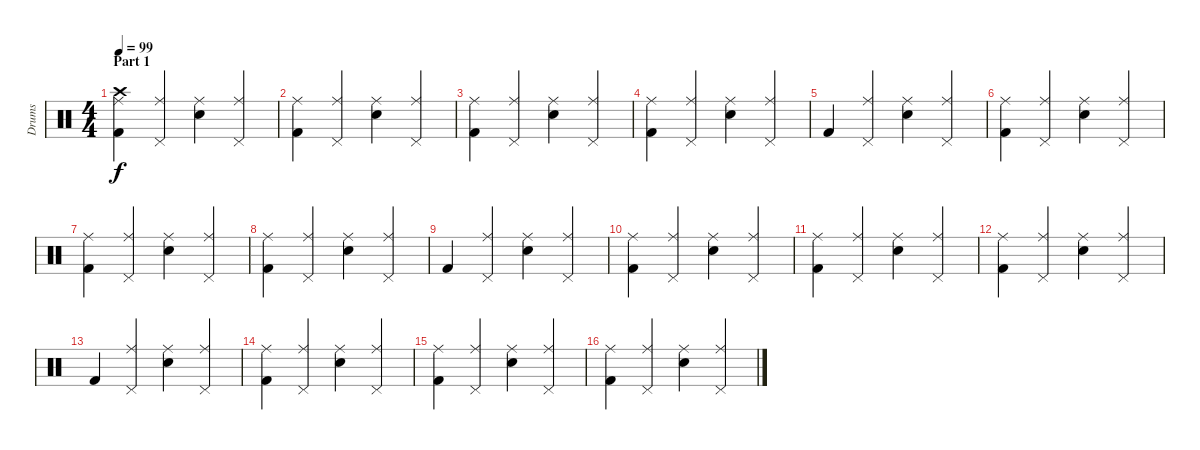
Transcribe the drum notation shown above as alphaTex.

\track ("Drums" "Drums") {instrument percussion}
\staff {score}
\articulation defaults
\ts (4 4)
\section ("" "Part 1")
\tempo 99
\clef neutral
\ks c
("Ride (middle)" "Crash high (hit)" "Kick (hit) 2").4{dy f} ("Ride (middle)" "Pedal Hi-Hat (hit)").4 ("Ride (middle)" "Snare (hit) 2").4 ("Ride (middle)" "Pedal Hi-Hat (hit)").4 |
("Ride (middle)" "Kick (hit) 2").4 ("Ride (middle)" "Pedal Hi-Hat (hit)").4 ("Ride (middle)" "Snare (hit) 2").4 ("Ride (middle)" "Pedal Hi-Hat (hit)").4 |
("Ride (middle)" "Kick (hit) 2").4 ("Ride (middle)" "Pedal Hi-Hat (hit)").4 ("Ride (middle)" "Snare (hit) 2").4 ("Ride (middle)" "Pedal Hi-Hat (hit)").4 |
("Ride (middle)" "Kick (hit) 2").4 ("Ride (middle)" "Pedal Hi-Hat (hit)").4 ("Ride (middle)" "Snare (hit) 2").4 ("Ride (middle)" "Pedal Hi-Hat (hit)").4 |
"Kick (hit) 2".4 ("Ride (middle)" "Pedal Hi-Hat (hit)").4 ("Ride (middle)" "Snare (hit) 2").4 ("Ride (middle)" "Pedal Hi-Hat (hit)").4 |
("Ride (middle)" "Kick (hit) 2").4 ("Ride (middle)" "Pedal Hi-Hat (hit)").4 ("Ride (middle)" "Snare (hit) 2").4 ("Ride (middle)" "Pedal Hi-Hat (hit)").4 |
("Ride (middle)" "Kick (hit) 2").4 ("Ride (middle)" "Pedal Hi-Hat (hit)").4 ("Ride (middle)" "Snare (hit) 2").4 ("Ride (middle)" "Pedal Hi-Hat (hit)").4 |
("Ride (middle)" "Kick (hit) 2").4 ("Ride (middle)" "Pedal Hi-Hat (hit)").4 ("Ride (middle)" "Snare (hit) 2").4 ("Ride (middle)" "Pedal Hi-Hat (hit)").4 |
"Kick (hit) 2".4 ("Ride (middle)" "Pedal Hi-Hat (hit)").4 ("Ride (middle)" "Snare (hit) 2").4 ("Ride (middle)" "Pedal Hi-Hat (hit)").4 |
("Ride (middle)" "Kick (hit) 2").4 ("Ride (middle)" "Pedal Hi-Hat (hit)").4 ("Ride (middle)" "Snare (hit) 2").4 ("Ride (middle)" "Pedal Hi-Hat (hit)").4 |
("Ride (middle)" "Kick (hit) 2").4 ("Ride (middle)" "Pedal Hi-Hat (hit)").4 ("Ride (middle)" "Snare (hit) 2").4 ("Ride (middle)" "Pedal Hi-Hat (hit)").4 |
("Ride (middle)" "Kick (hit) 2").4 ("Ride (middle)" "Pedal Hi-Hat (hit)").4 ("Ride (middle)" "Snare (hit) 2").4 ("Ride (middle)" "Pedal Hi-Hat (hit)").4 |
"Kick (hit) 2".4 ("Ride (middle)" "Pedal Hi-Hat (hit)").4 ("Ride (middle)" "Snare (hit) 2").4 ("Ride (middle)" "Pedal Hi-Hat (hit)").4 |
("Ride (middle)" "Kick (hit) 2").4 ("Ride (middle)" "Pedal Hi-Hat (hit)").4 ("Ride (middle)" "Snare (hit) 2").4 ("Ride (middle)" "Pedal Hi-Hat (hit)").4 |
("Ride (middle)" "Kick (hit) 2").4 ("Ride (middle)" "Pedal Hi-Hat (hit)").4 ("Ride (middle)" "Snare (hit) 2").4 ("Ride (middle)" "Pedal Hi-Hat (hit)").4 |
("Ride (middle)" "Kick (hit) 2").4 ("Ride (middle)" "Pedal Hi-Hat (hit)").4 ("Ride (middle)" "Snare (hit) 2").4 ("Ride (middle)" "Pedal Hi-Hat (hit)").4
